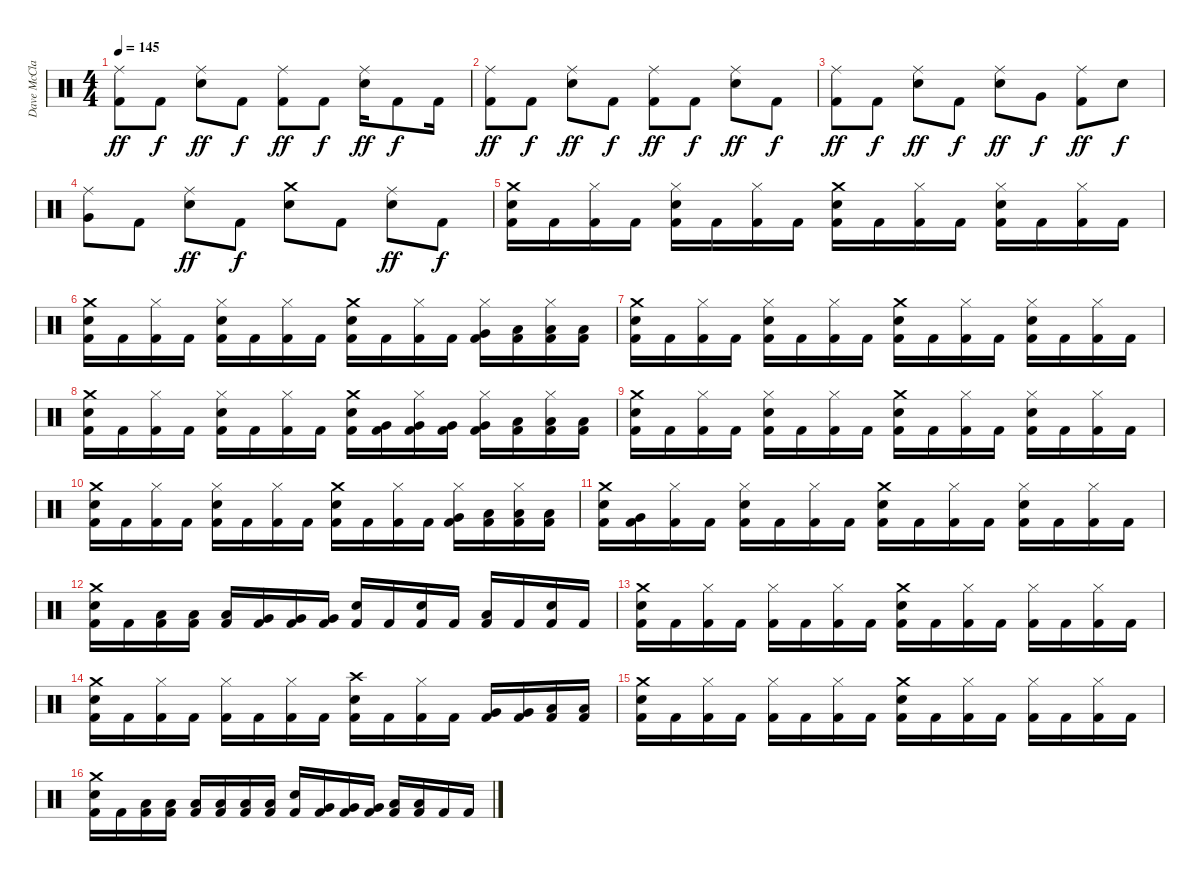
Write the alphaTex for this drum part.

\track ("Dave McClain" "Dave McCla") {instrument percussion}
\staff {score}
\articulation defaults
\ts (4 4)
\tempo 145
\clef neutral
\ks c
("Ride (middle)" "Kick (hit) 2").8{dy ff} "Kick (hit) 2".8{dy f} ("Ride (middle)" "Snare (hit) 2").8{dy ff} "Kick (hit) 2".8{dy f} ("Ride (middle)" "Kick (hit) 2").8{dy ff} "Kick (hit) 2".8{dy f} ("Ride (middle)" "Snare (hit) 2").16{dy ff} "Kick (hit) 2".8{dy f} "Kick (hit) 2".16 |
("Ride (middle)" "Kick (hit) 2").8{dy ff} "Kick (hit) 2".8{dy f} ("Ride (middle)" "Snare (hit) 2").8{dy ff} "Kick (hit) 2".8{dy f} ("Ride (middle)" "Kick (hit) 2").8{dy ff} "Kick (hit) 2".8{dy f} ("Ride (middle)" "Snare (hit) 2").8{dy ff} "Kick (hit) 2".8{dy f} |
("Ride (middle)" "Kick (hit) 2").8{dy ff} "Kick (hit) 2".8{dy f} ("Ride (middle)" "Snare (hit) 2").8{dy ff} "Kick (hit) 2".8{dy f} ("Ride (middle)" "Snare (hit) 2").8{dy ff} "Very Low Tom (hit)".8{dy f} ("Ride (middle)" "Kick (hit) 2").8{dy ff} "Snare (hit) 2".8{dy f} |
("Ride (middle)" "Very Low Tom (hit)").8 "Kick (hit) 2".8 ("Ride (middle)" "Snare (hit) 2").8{dy ff} "Kick (hit) 2".8{dy f} ("Crash medium (hit)" "Snare (hit) 2").8 "Kick (hit) 2".8 ("Ride (middle)" "Snare (hit) 2").8{dy ff} "Kick (hit) 2".8{dy f} |
("Crash medium (hit)" "Snare (hit) 2" "Kick (hit) 2").16 "Kick (hit) 2".16 ("Hi-Hat (closed)" "Kick (hit) 2").16 "Kick (hit) 2".16 ("Hi-Hat (closed)" "Snare (hit) 2" "Kick (hit) 2").16 "Kick (hit) 2".16 ("Hi-Hat (closed)" "Kick (hit) 2").16 "Kick (hit) 2".16 ("Crash medium (hit)" "Snare (hit) 2" "Kick (hit) 2").16 "Kick (hit) 2".16 ("Hi-Hat (closed)" "Kick (hit) 2").16 "Kick (hit) 2".16 ("Hi-Hat (closed)" "Snare (hit) 2" "Kick (hit) 2").16 "Kick (hit) 2".16 ("Hi-Hat (closed)" "Kick (hit) 2").16 "Kick (hit) 2".16 |
("Crash medium (hit)" "Snare (hit) 2" "Kick (hit) 2").16 "Kick (hit) 2".16 ("Hi-Hat (closed)" "Kick (hit) 2").16 "Kick (hit) 2".16 ("Hi-Hat (closed)" "Snare (hit) 2" "Kick (hit) 2").16 "Kick (hit) 2".16 ("Hi-Hat (closed)" "Kick (hit) 2").16 "Kick (hit) 2".16 ("Crash medium (hit)" "Snare (hit) 2" "Kick (hit) 2").16 "Kick (hit) 2".16 ("Hi-Hat (closed)" "Kick (hit) 2").16 "Kick (hit) 2".16 ("Hi-Hat (closed)" "Very Low Tom (hit)" "Kick (hit) 2").16 ("Low Floor Tom (hit)" "Kick (hit) 2").16 ("Hi-Hat (closed)" "Low Floor Tom (hit)" "Kick (hit) 2").16 ("Low Floor Tom (hit)" "Kick (hit) 2").16 |
("Crash medium (hit)" "Snare (hit) 2" "Kick (hit) 2").16 "Kick (hit) 2".16 ("Hi-Hat (closed)" "Kick (hit) 2").16 "Kick (hit) 2".16 ("Hi-Hat (closed)" "Snare (hit) 2" "Kick (hit) 2").16 "Kick (hit) 2".16 ("Hi-Hat (closed)" "Kick (hit) 2").16 "Kick (hit) 2".16 ("Crash medium (hit)" "Snare (hit) 2" "Kick (hit) 2").16 "Kick (hit) 2".16 ("Hi-Hat (closed)" "Kick (hit) 2").16 "Kick (hit) 2".16 ("Hi-Hat (closed)" "Snare (hit) 2" "Kick (hit) 2").16 "Kick (hit) 2".16 ("Hi-Hat (closed)" "Kick (hit) 2").16 "Kick (hit) 2".16 |
("Crash medium (hit)" "Snare (hit) 2" "Kick (hit) 2").16 "Kick (hit) 2".16 ("Hi-Hat (closed)" "Kick (hit) 2").16 "Kick (hit) 2".16 ("Hi-Hat (closed)" "Snare (hit) 2" "Kick (hit) 2").16 "Kick (hit) 2".16 ("Hi-Hat (closed)" "Kick (hit) 2").16 "Kick (hit) 2".16 ("Crash medium (hit)" "Snare (hit) 2" "Kick (hit) 2").16 ("Very Low Tom (hit)" "Kick (hit) 2").16 ("Hi-Hat (closed)" "Very Low Tom (hit)" "Kick (hit) 2").16 ("Very Low Tom (hit)" "Kick (hit) 2").16 ("Hi-Hat (closed)" "Very Low Tom (hit)" "Kick (hit) 2").16 ("Low Floor Tom (hit)" "Kick (hit) 2").16 ("Hi-Hat (closed)" "Low Floor Tom (hit)" "Kick (hit) 2").16 ("Low Floor Tom (hit)" "Kick (hit) 2").16 |
("Crash medium (hit)" "Snare (hit) 2" "Kick (hit) 2").16 "Kick (hit) 2".16 ("Hi-Hat (closed)" "Kick (hit) 2").16 "Kick (hit) 2".16 ("Hi-Hat (closed)" "Snare (hit) 2" "Kick (hit) 2").16 "Kick (hit) 2".16 ("Hi-Hat (closed)" "Kick (hit) 2").16 "Kick (hit) 2".16 ("Crash medium (hit)" "Snare (hit) 2" "Kick (hit) 2").16 "Kick (hit) 2".16 ("Hi-Hat (closed)" "Kick (hit) 2").16 "Kick (hit) 2".16 ("Hi-Hat (closed)" "Snare (hit) 2" "Kick (hit) 2").16 "Kick (hit) 2".16 ("Hi-Hat (closed)" "Kick (hit) 2").16 "Kick (hit) 2".16 |
("Crash medium (hit)" "Snare (hit) 2" "Kick (hit) 2").16 "Kick (hit) 2".16 ("Hi-Hat (closed)" "Kick (hit) 2").16 "Kick (hit) 2".16 ("Hi-Hat (closed)" "Snare (hit) 2" "Kick (hit) 2").16 "Kick (hit) 2".16 ("Hi-Hat (closed)" "Kick (hit) 2").16 "Kick (hit) 2".16 ("Crash medium (hit)" "Snare (hit) 2" "Kick (hit) 2").16 "Kick (hit) 2".16 ("Hi-Hat (closed)" "Kick (hit) 2").16 "Kick (hit) 2".16 ("Hi-Hat (closed)" "Very Low Tom (hit)" "Kick (hit) 2").16 ("Low Floor Tom (hit)" "Kick (hit) 2").16 ("Hi-Hat (closed)" "Low Floor Tom (hit)" "Kick (hit) 2").16 ("Low Floor Tom (hit)" "Kick (hit) 2").16 |
("Crash medium (hit)" "Snare (hit) 2" "Kick (hit) 2").16 ("Very Low Tom (hit)" "Kick (hit) 2").16 ("Hi-Hat (closed)" "Kick (hit) 2").16 "Kick (hit) 2".16 ("Hi-Hat (closed)" "Snare (hit) 2" "Kick (hit) 2").16 "Kick (hit) 2".16 ("Hi-Hat (closed)" "Kick (hit) 2").16 "Kick (hit) 2".16 ("Crash medium (hit)" "Snare (hit) 2" "Kick (hit) 2").16 "Kick (hit) 2".16 ("Hi-Hat (closed)" "Kick (hit) 2").16 "Kick (hit) 2".16 ("Hi-Hat (closed)" "Snare (hit) 2" "Kick (hit) 2").16 "Kick (hit) 2".16 ("Hi-Hat (closed)" "Kick (hit) 2").16 "Kick (hit) 2".16 |
("Crash medium (hit)" "Snare (hit) 2" "Kick (hit) 2").16 "Kick (hit) 2".16 ("Low Tom (hit)" "Kick (hit) 2").16 ("Low Tom (hit)" "Kick (hit) 2").16 ("Low Tom (hit)" "Kick (hit) 2").16 ("Very Low Tom (hit)" "Kick (hit) 2").16 ("Very Low Tom (hit)" "Kick (hit) 2").16 ("Very Low Tom (hit)" "Kick (hit) 2").16 ("Snare (hit) 2" "Kick (hit) 2").16 "Kick (hit) 2".16 ("Snare (hit) 2" "Kick (hit) 2").16 "Kick (hit) 2".16 ("Low Floor Tom (hit)" "Kick (hit) 2").16 "Kick (hit) 2".16 ("Snare (hit) 2" "Kick (hit) 2").16 "Kick (hit) 2".16 |
("Crash medium (hit)" "Snare (hit) 2" "Kick (hit) 2").16 "Kick (hit) 2".16 ("Hi-Hat (closed)" "Kick (hit) 2").16 "Kick (hit) 2".16 ("Hi-Hat (closed)" "Kick (hit) 2").16 "Kick (hit) 2".16 ("Hi-Hat (closed)" "Kick (hit) 2").16 "Kick (hit) 2".16 ("Crash medium (hit)" "Snare (hit) 2" "Kick (hit) 2").16 "Kick (hit) 2".16 ("Hi-Hat (closed)" "Kick (hit) 2").16 "Kick (hit) 2".16 ("Hi-Hat (closed)" "Kick (hit) 2").16 "Kick (hit) 2".16 ("Hi-Hat (closed)" "Kick (hit) 2").16 "Kick (hit) 2".16 |
("Crash medium (hit)" "Snare (hit) 2" "Kick (hit) 2").16 "Kick (hit) 2".16 ("Hi-Hat (closed)" "Kick (hit) 2").16 "Kick (hit) 2".16 ("Hi-Hat (closed)" "Kick (hit) 2").16 "Kick (hit) 2".16 ("Hi-Hat (closed)" "Kick (hit) 2").16 "Kick (hit) 2".16 ("Crash high (hit)" "Snare (hit) 2" "Kick (hit) 2").16 "Kick (hit) 2".16 ("Hi-Hat (closed)" "Kick (hit) 2").16 "Kick (hit) 2".16 ("Very Low Tom (hit)" "Kick (hit) 2").16 ("Very Low Tom (hit)" "Kick (hit) 2").16 ("Low Floor Tom (hit)" "Kick (hit) 2").16 ("Low Floor Tom (hit)" "Kick (hit) 2").16 |
("Crash medium (hit)" "Snare (hit) 2" "Kick (hit) 2").16 "Kick (hit) 2".16 ("Hi-Hat (closed)" "Kick (hit) 2").16 "Kick (hit) 2".16 ("Hi-Hat (closed)" "Kick (hit) 2").16 "Kick (hit) 2".16 ("Hi-Hat (closed)" "Kick (hit) 2").16 "Kick (hit) 2".16 ("Crash medium (hit)" "Snare (hit) 2" "Kick (hit) 2").16 "Kick (hit) 2".16 ("Hi-Hat (closed)" "Kick (hit) 2").16 "Kick (hit) 2".16 ("Hi-Hat (closed)" "Kick (hit) 2").16 "Kick (hit) 2".16 ("Hi-Hat (closed)" "Kick (hit) 2").16 "Kick (hit) 2".16 |
("Crash medium (hit)" "Snare (hit) 2" "Kick (hit) 2").16 "Kick (hit) 2".16 ("Low Floor Tom (hit)" "Kick (hit) 2").16 ("Low Floor Tom (hit)" "Kick (hit) 2").16 ("Low Floor Tom (hit)" "Kick (hit) 2").16 ("Low Floor Tom (hit)" "Kick (hit) 2").16 ("Low Floor Tom (hit)" "Kick (hit) 2").16 ("Low Floor Tom (hit)" "Kick (hit) 2").16 ("Snare (hit) 2" "Kick (hit) 2").16 ("Very Low Tom (hit)" "Kick (hit) 2").16 ("Very Low Tom (hit)" "Kick (hit) 2").16 ("Very Low Tom (hit)" "Kick (hit) 2").16 ("Low Floor Tom (hit)" "Kick (hit) 2").16 ("Low Floor Tom (hit)" "Kick (hit) 2").16 "Kick (hit) 2".16 "Kick (hit) 2".16
